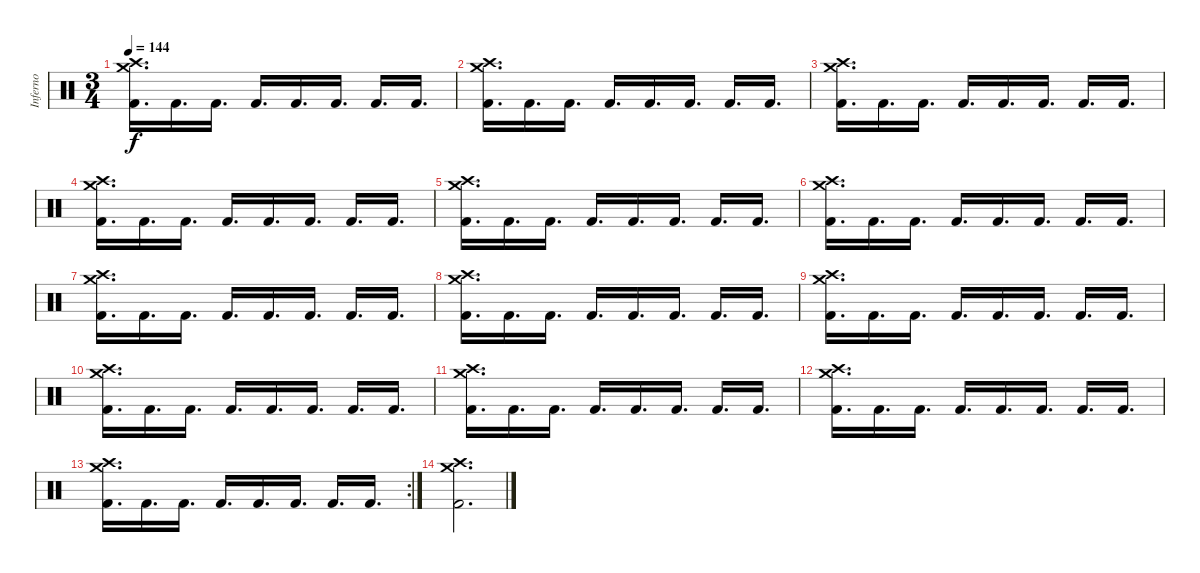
\track ("Inferno" "Inferno") {instrument percussion}
\staff {score}
\articulation defaults
\ts (3 4)
\tempo 144
\clef neutral
\ks c
("Crash medium (hit)" "Crash high (hit)" "Kick (hit) 2").16{d dy f} "Kick (hit) 2".16{d} "Kick (hit) 2".16{d} "Kick (hit) 2".16{d} "Kick (hit) 2".16{d} "Kick (hit) 2".16{d} "Kick (hit) 2".16{d} "Kick (hit) 2".16{d} |
("Crash medium (hit)" "Crash high (hit)" "Kick (hit) 2").16{d} "Kick (hit) 2".16{d} "Kick (hit) 2".16{d} "Kick (hit) 2".16{d} "Kick (hit) 2".16{d} "Kick (hit) 2".16{d} "Kick (hit) 2".16{d} "Kick (hit) 2".16{d} |
("Crash medium (hit)" "Crash high (hit)" "Kick (hit) 2").16{d} "Kick (hit) 2".16{d} "Kick (hit) 2".16{d} "Kick (hit) 2".16{d} "Kick (hit) 2".16{d} "Kick (hit) 2".16{d} "Kick (hit) 2".16{d} "Kick (hit) 2".16{d} |
("Crash medium (hit)" "Crash high (hit)" "Kick (hit) 2").16{d} "Kick (hit) 2".16{d} "Kick (hit) 2".16{d} "Kick (hit) 2".16{d} "Kick (hit) 2".16{d} "Kick (hit) 2".16{d} "Kick (hit) 2".16{d} "Kick (hit) 2".16{d} |
("Crash medium (hit)" "Crash high (hit)" "Kick (hit) 2").16{d} "Kick (hit) 2".16{d} "Kick (hit) 2".16{d} "Kick (hit) 2".16{d} "Kick (hit) 2".16{d} "Kick (hit) 2".16{d} "Kick (hit) 2".16{d} "Kick (hit) 2".16{d} |
("Crash medium (hit)" "Crash high (hit)" "Kick (hit) 2").16{d} "Kick (hit) 2".16{d} "Kick (hit) 2".16{d} "Kick (hit) 2".16{d} "Kick (hit) 2".16{d} "Kick (hit) 2".16{d} "Kick (hit) 2".16{d} "Kick (hit) 2".16{d} |
("Crash medium (hit)" "Crash high (hit)" "Kick (hit) 2").16{d} "Kick (hit) 2".16{d} "Kick (hit) 2".16{d} "Kick (hit) 2".16{d} "Kick (hit) 2".16{d} "Kick (hit) 2".16{d} "Kick (hit) 2".16{d} "Kick (hit) 2".16{d} |
("Crash medium (hit)" "Crash high (hit)" "Kick (hit) 2").16{d} "Kick (hit) 2".16{d} "Kick (hit) 2".16{d} "Kick (hit) 2".16{d} "Kick (hit) 2".16{d} "Kick (hit) 2".16{d} "Kick (hit) 2".16{d} "Kick (hit) 2".16{d} |
("Crash medium (hit)" "Crash high (hit)" "Kick (hit) 2").16{d} "Kick (hit) 2".16{d} "Kick (hit) 2".16{d} "Kick (hit) 2".16{d} "Kick (hit) 2".16{d} "Kick (hit) 2".16{d} "Kick (hit) 2".16{d} "Kick (hit) 2".16{d} |
("Crash medium (hit)" "Crash high (hit)" "Kick (hit) 2").16{d} "Kick (hit) 2".16{d} "Kick (hit) 2".16{d} "Kick (hit) 2".16{d} "Kick (hit) 2".16{d} "Kick (hit) 2".16{d} "Kick (hit) 2".16{d} "Kick (hit) 2".16{d} |
("Crash medium (hit)" "Crash high (hit)" "Kick (hit) 2").16{d} "Kick (hit) 2".16{d} "Kick (hit) 2".16{d} "Kick (hit) 2".16{d} "Kick (hit) 2".16{d} "Kick (hit) 2".16{d} "Kick (hit) 2".16{d} "Kick (hit) 2".16{d} |
("Crash medium (hit)" "Crash high (hit)" "Kick (hit) 2").16{d} "Kick (hit) 2".16{d} "Kick (hit) 2".16{d} "Kick (hit) 2".16{d} "Kick (hit) 2".16{d} "Kick (hit) 2".16{d} "Kick (hit) 2".16{d} "Kick (hit) 2".16{d} |
\rc 2
("Crash medium (hit)" "Crash high (hit)" "Kick (hit) 2").16{d} "Kick (hit) 2".16{d} "Kick (hit) 2".16{d} "Kick (hit) 2".16{d} "Kick (hit) 2".16{d} "Kick (hit) 2".16{d} "Kick (hit) 2".16{d} "Kick (hit) 2".16{d} |
("Crash medium (hit)" "Crash high (hit)" "Kick (hit) 2").2{d}
